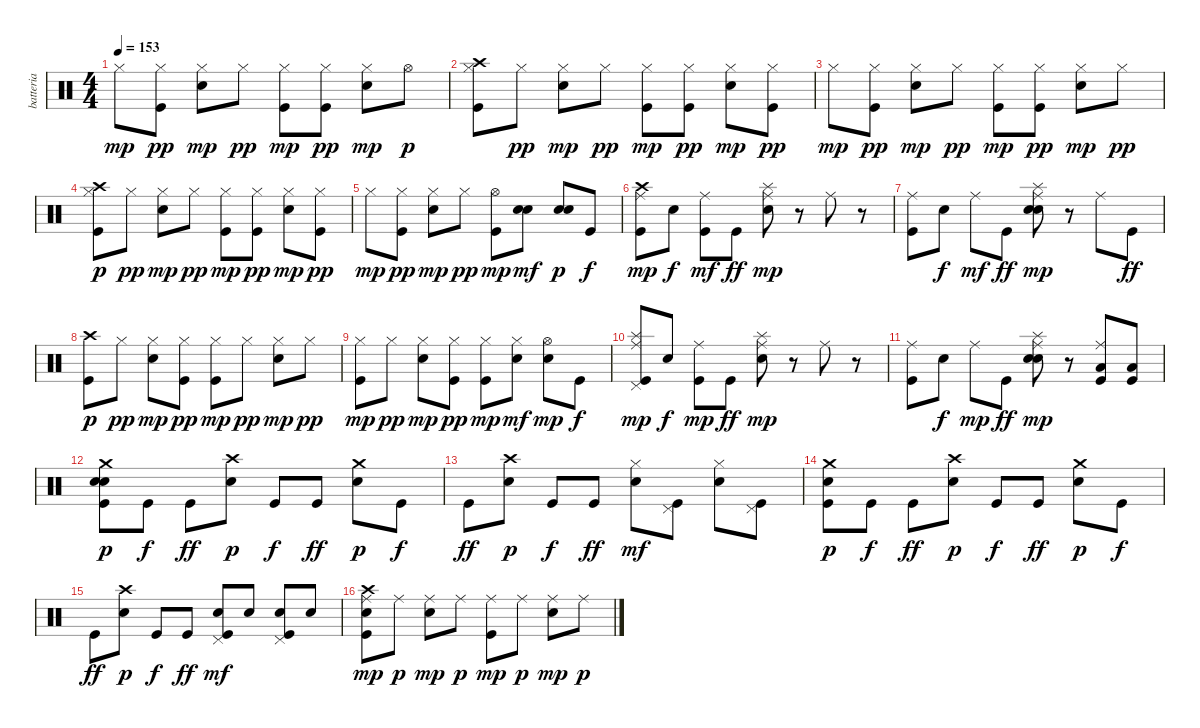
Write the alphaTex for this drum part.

\track ("batteria" "batteria") {instrument percussion}
\staff {score}
\articulation defaults
\ts (4 4)
\tempo 153
\clef neutral
\ks c "Hi-Hat (closed)".8{dy mp}
("Kick (hit)" "Hi-Hat (closed)").8{dy pp} ("Hi-Hat (closed)" "Electric Snare (hit)").8{dy mp} "Hi-Hat (closed)".8{dy pp} ("Kick (hit)" "Hi-Hat (closed)").8{dy mp} ("Kick (hit)" "Hi-Hat (closed)").8{dy pp} ("Hi-Hat (closed)" "Electric Snare (hit)").8{dy mp} "Hi-Hat (open)".8{dy p} |
("Kick (hit)" "Hi-Hat (closed)" "Crash high (hit)").8 "Hi-Hat (closed)".8{dy pp} ("Hi-Hat (closed)" "Electric Snare (hit)").8{dy mp} "Hi-Hat (closed)".8{dy pp} ("Kick (hit)" "Hi-Hat (closed)").8{dy mp} ("Kick (hit)" "Hi-Hat (closed)").8{dy pp} ("Hi-Hat (closed)" "Electric Snare (hit)").8{dy mp} ("Kick (hit)" "Hi-Hat (closed)").8{dy pp} |
"Hi-Hat (closed)".8{dy mp} ("Kick (hit)" "Hi-Hat (closed)").8{dy pp} ("Hi-Hat (closed)" "Electric Snare (hit)").8{dy mp} "Hi-Hat (closed)".8{dy pp} ("Kick (hit)" "Hi-Hat (closed)").8{dy mp} ("Kick (hit)" "Hi-Hat (closed)").8{dy pp} ("Hi-Hat (closed)" "Electric Snare (hit)").8{dy mp} "Hi-Hat (closed)".8{dy pp} |
("Kick (hit)" "Hi-Hat (closed)" "Crash high (hit)").8{dy p} "Hi-Hat (closed)".8{dy pp} ("Hi-Hat (closed)" "Electric Snare (hit)").8{dy mp} "Hi-Hat (closed)".8{dy pp} ("Kick (hit)" "Hi-Hat (closed)").8{dy mp} ("Kick (hit)" "Hi-Hat (closed)").8{dy pp} ("Hi-Hat (closed)" "Electric Snare (hit)").8{dy mp} ("Kick (hit)" "Hi-Hat (closed)").8{dy pp} |
"Hi-Hat (closed)".8{dy mp} ("Kick (hit)" "Hi-Hat (closed)").8{dy pp} ("Hi-Hat (closed)" "Electric Snare (hit)").8{dy mp} "Hi-Hat (closed)".8{dy pp} ("Kick (hit)" "Hi-Hat (open)").8{dy mp} ("Electric Snare (hit)" "Electric Snare (hit)").8{dy mf} ("Electric Snare (hit)" "Electric Snare (hit)").8{dy p} "Kick (hit)".8{dy f} |
("Kick (hit)" "Crash high (hit)" "Ride (middle)").8{dy mp} "Electric Snare (hit)".8{dy f} ("Kick (hit)" "Ride (middle)").8{dy mf} "Kick (hit)".8{dy ff} ("Ride (middle)" "Splash (hit)" "Electric Snare (hit)").8{dy mp} r.8 "Ride (middle)".8 r.8 |
("Kick (hit)" "Ride (middle)").8 "Electric Snare (hit)".8{dy f} "Ride (middle)".8{dy mf} "Kick (hit)".8{dy ff} ("Electric Snare (hit)" "Ride (middle)" "Splash (hit)" "Electric Snare (hit)").8{dy mp} r.8 "Ride (middle)".8 "Kick (hit)".8{dy ff} |
("Kick (hit)" "Crash high (hit)").8{dy p} "Hi-Hat (closed)".8{dy pp} ("Hi-Hat (closed)" "Electric Snare (hit)").8{dy mp} ("Kick (hit)" "Hi-Hat (closed)").8{dy pp} ("Kick (hit)" "Hi-Hat (closed)").8{dy mp} "Hi-Hat (closed)".8{dy pp} ("Hi-Hat (closed)" "Electric Snare (hit)").8{dy mp} "Hi-Hat (closed)".8{dy pp} |
("Kick (hit)" "Hi-Hat (closed)").8{dy mp} "Hi-Hat (closed)".8{dy pp} ("Hi-Hat (closed)" "Electric Snare (hit)").8{dy mp} ("Kick (hit)" "Hi-Hat (closed)").8{dy pp} ("Kick (hit)" "Hi-Hat (closed)").8{dy mp} ("Hi-Hat (closed)" "Electric Snare (hit)").8{dy mf} ("Hi-Hat (open)" "Electric Snare (hit)").8{dy mp} "Kick (hit)".8{dy f} |
("Kick (hit)" "Pedal Hi-Hat (hit)" "Ride (middle)" "Splash (hit)").8{dy mp} "Electric Snare (hit)".8{dy f} ("Kick (hit)" "Ride (middle)").8{dy mp} "Kick (hit)".8{dy ff} ("Ride (middle)" "Splash (hit)" "Electric Snare (hit)").8{dy mp} r.8 "Ride (middle)".8 r.8 |
("Kick (hit)" "Ride (middle)").8 "Electric Snare (hit)".8{dy f} "Ride (middle)".8{dy mp} "Kick (hit)".8{dy ff} ("Electric Snare (hit)" "Ride (middle)" "Splash (hit)" "Electric Snare (hit)").8{dy mp} r.8 ("Kick (hit)" "Low Tom (hit)" "Ride (middle)").8 ("Kick (hit)" "Low Tom (hit)").8 |
("Electric Snare (hit)" "Kick (hit)" "Crash medium (hit)" "Electric Snare (hit)").8{dy p} "Kick (hit)".8{dy f} "Kick (hit)".8{dy ff} ("Crash high (hit)" "Electric Snare (hit)").8{dy p} "Kick (hit)".8{dy f} "Kick (hit)".8{dy ff} ("Crash medium (hit)" "Electric Snare (hit)").8{dy p} "Kick (hit)".8{dy f} |
"Kick (hit)".8{dy ff} ("Crash high (hit)" "Electric Snare (hit)").8{dy p} "Kick (hit)".8{dy f} "Kick (hit)".8{dy ff} ("Hi-Hat (closed)" "Electric Snare (hit)").8{dy mf} ("Kick (hit)" "Pedal Hi-Hat (hit)").8 ("Hi-Hat (closed)" "Electric Snare (hit)").8 ("Kick (hit)" "Pedal Hi-Hat (hit)").8 |
("Kick (hit)" "Crash medium (hit)" "Electric Snare (hit)").8{dy p} "Kick (hit)".8{dy f} "Kick (hit)".8{dy ff} ("Crash high (hit)" "Electric Snare (hit)").8{dy p} "Kick (hit)".8{dy f} "Kick (hit)".8{dy ff} ("Crash medium (hit)" "Electric Snare (hit)").8{dy p} "Kick (hit)".8{dy f} |
"Kick (hit)".8{dy ff} ("Crash high (hit)" "Electric Snare (hit)").8{dy p} "Kick (hit)".8{dy f} "Kick (hit)".8{dy ff} ("Kick (hit)" "Pedal Hi-Hat (hit)" "Electric Snare (hit)").8{dy mf} "Electric Snare (hit)".8 ("Kick (hit)" "Pedal Hi-Hat (hit)" "Electric Snare (hit)").8 "Electric Snare (hit)".8 |
("Electric Snare (hit)" "Kick (hit)" "Crash high (hit)" "Ride (middle)").8{dy mp} "Ride (middle)".8{dy p} ("Ride (middle)" "Electric Snare (hit)").8{dy mp} "Ride (middle)".8{dy p} ("Kick (hit)" "Ride (middle)").8{dy mp} "Ride (middle)".8{dy p} ("Ride (middle)" "Electric Snare (hit)").8{dy mp} "Ride (middle)".8{dy p}
